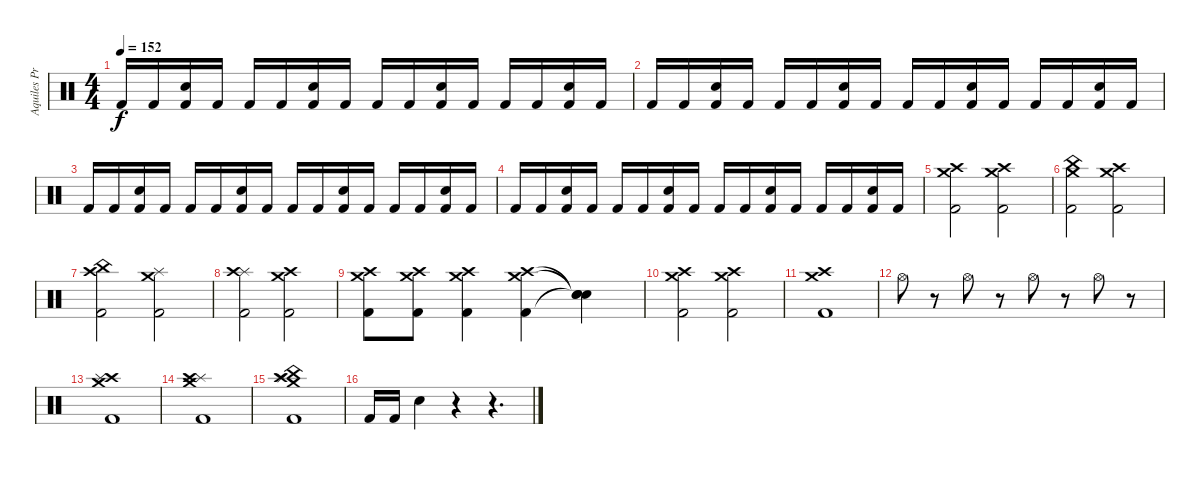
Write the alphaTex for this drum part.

\track ("Aquiles Priester" "Aquiles Pr") {instrument percussion}
\staff {score}
\articulation defaults
\ts (4 4)
\tempo 152
\clef neutral
\ks c "Kick (hit) 2".16{dy f} "Kick (hit) 2".16
("Electric Snare (hit)" "Kick (hit) 2").16 "Kick (hit) 2".16 "Kick (hit) 2".16 "Kick (hit) 2".16 ("Electric Snare (hit)" "Kick (hit) 2").16 "Kick (hit) 2".16 "Kick (hit) 2".16 "Kick (hit) 2".16 ("Electric Snare (hit)" "Kick (hit) 2").16 "Kick (hit) 2".16 "Kick (hit) 2".16 "Kick (hit) 2".16 ("Electric Snare (hit)" "Kick (hit) 2").16 "Kick (hit) 2".16 |
"Kick (hit) 2".16 "Kick (hit) 2".16 ("Electric Snare (hit)" "Kick (hit) 2").16 "Kick (hit) 2".16 "Kick (hit) 2".16 "Kick (hit) 2".16 ("Electric Snare (hit)" "Kick (hit) 2").16 "Kick (hit) 2".16 "Kick (hit) 2".16 "Kick (hit) 2".16 ("Electric Snare (hit)" "Kick (hit) 2").16 "Kick (hit) 2".16 "Kick (hit) 2".16 "Kick (hit) 2".16 ("Electric Snare (hit)" "Kick (hit) 2").16 "Kick (hit) 2".16 |
"Kick (hit) 2".16 "Kick (hit) 2".16 ("Electric Snare (hit)" "Kick (hit) 2").16 "Kick (hit) 2".16 "Kick (hit) 2".16 "Kick (hit) 2".16 ("Electric Snare (hit)" "Kick (hit) 2").16 "Kick (hit) 2".16 "Kick (hit) 2".16 "Kick (hit) 2".16 ("Electric Snare (hit)" "Kick (hit) 2").16 "Kick (hit) 2".16 "Kick (hit) 2".16 "Kick (hit) 2".16 ("Electric Snare (hit)" "Kick (hit) 2").16 "Kick (hit) 2".16 |
"Kick (hit) 2".16 "Kick (hit) 2".16 ("Electric Snare (hit)" "Kick (hit) 2").16 "Kick (hit) 2".16 "Kick (hit) 2".16 "Kick (hit) 2".16 ("Electric Snare (hit)" "Kick (hit) 2").16 "Kick (hit) 2".16 "Kick (hit) 2".16 "Kick (hit) 2".16 ("Electric Snare (hit)" "Kick (hit) 2").16 "Kick (hit) 2".16 "Kick (hit) 2".16 "Kick (hit) 2".16 ("Electric Snare (hit)" "Kick (hit) 2").16 "Kick (hit) 2".16 |
("Crash high (hit)" "Crash medium (hit)" "Kick (hit) 2").2 ("Crash high (hit)" "Crash medium (hit)" "Kick (hit) 2").2 |
("Crash medium (hit)" "China (hit)" "Kick (hit) 2").2 ("Crash high (hit)" "Crash medium (hit)" "Kick (hit) 2").2 |
("China (hit)" "Crash high (hit)" "Kick (hit) 2").2 ("Crash medium (hit)" "Splash (hit)" "Kick (hit) 2").2 |
("Splash (hit)" "Crash high (hit)" "Kick (hit) 2").2 ("Crash high (hit)" "Crash medium (hit)" "Kick (hit) 2").2 |
("Crash medium (hit)" "Crash high (hit)" "Kick (hit) 2").8 ("Crash medium (hit)" "Crash high (hit)" "Kick (hit) 2").8 ("Crash medium (hit)" "Crash high (hit)" "Kick (hit) 2").4 ("Crash medium (hit)" "Crash high (hit)" "Kick (hit) 2").4 ("Snare (hit)"{t} "Snare (hit)"{t} "Snare (hit)"{t}).4 |
("Crash medium (hit)" "Crash high (hit)" "Kick (hit) 2").2 ("Crash medium (hit)" "Crash high (hit)" "Kick (hit) 2").2 |
("Crash high (hit)" "Crash medium (hit)" "Kick (hit) 2").1 |
"Hi-Hat (open)".8 r.8 "Hi-Hat (open)".8 r.8 "Hi-Hat (open)".8 r.8 "Hi-Hat (open)".8 r.8 |
("Crash high (hit)" "Splash (hit)" "Crash medium (hit)" "Kick (hit) 2").1 |
("Kick (hit) 2" "Splash (hit)" "Crash medium (hit)" "Crash high (hit)").1 |
("China (hit)" "Splash (hit)" "Crash high (hit)" "Crash medium (hit)" "Kick (hit) 2").1 |
"Kick (hit) 2".16 "Kick (hit) 2".16 "Electric Snare (hit)".4 r.4 r.4{d}
